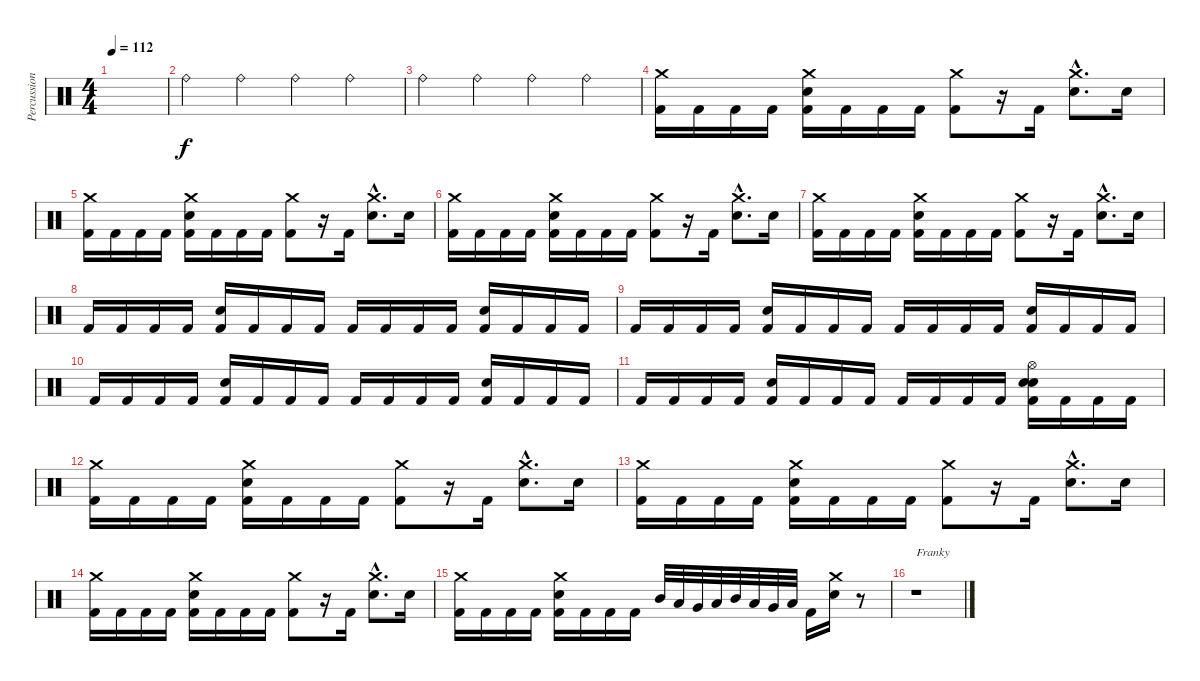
\track ("Percussions" "Percussion") {instrument percussion}
\staff {score}
\articulation defaults
\ts (4 4)
\tempo 112
\clef neutral
\ks c
|
"Ride (bell)".4 "Ride (bell)".4 "Ride (bell)".4 "Ride (bell)".4 |
"Ride (bell)".4 "Ride (bell)".4 "Ride (bell)".4 "Ride (bell)".4 |
("Crash medium (hit)" "Kick (hit) 2").16 "Kick (hit) 2".16 "Kick (hit) 2".16 "Kick (hit) 2".16 ("Crash medium (hit)" "Electric Snare (hit)" "Kick (hit) 2").16 "Kick (hit) 2".16 "Kick (hit) 2".16 "Kick (hit) 2".16 ("Crash medium (hit)" "Kick (hit) 2").8 r.16 "Kick (hit) 2".16 ("Crash medium (hit)"{hac} "Electric Snare (hit)"{hac}).8{d} "Electric Snare (hit)".16 |
("Crash medium (hit)" "Kick (hit) 2").16 "Kick (hit) 2".16 "Kick (hit) 2".16 "Kick (hit) 2".16 ("Crash medium (hit)" "Electric Snare (hit)" "Kick (hit) 2").16 "Kick (hit) 2".16 "Kick (hit) 2".16 "Kick (hit) 2".16 ("Crash medium (hit)" "Kick (hit) 2").8 r.16 "Kick (hit) 2".16 ("Crash medium (hit)"{hac} "Electric Snare (hit)"{hac}).8{d} "Electric Snare (hit)".16 |
("Crash medium (hit)" "Kick (hit) 2").16 "Kick (hit) 2".16 "Kick (hit) 2".16 "Kick (hit) 2".16 ("Crash medium (hit)" "Electric Snare (hit)" "Kick (hit) 2").16 "Kick (hit) 2".16 "Kick (hit) 2".16 "Kick (hit) 2".16 ("Crash medium (hit)" "Kick (hit) 2").8 r.16 "Kick (hit) 2".16 ("Crash medium (hit)"{hac} "Electric Snare (hit)"{hac}).8{d} "Electric Snare (hit)".16 |
("Crash medium (hit)" "Kick (hit) 2").16 "Kick (hit) 2".16 "Kick (hit) 2".16 "Kick (hit) 2".16 ("Crash medium (hit)" "Electric Snare (hit)" "Kick (hit) 2").16 "Kick (hit) 2".16 "Kick (hit) 2".16 "Kick (hit) 2".16 ("Crash medium (hit)" "Kick (hit) 2").8 r.16 "Kick (hit) 2".16 ("Crash medium (hit)"{hac} "Electric Snare (hit)"{hac}).8{d} "Electric Snare (hit)".16 |
"Kick (hit) 2".16 "Kick (hit) 2".16 "Kick (hit) 2".16 "Kick (hit) 2".16 ("Electric Snare (hit)" "Kick (hit) 2").16 "Kick (hit) 2".16 "Kick (hit) 2".16 "Kick (hit) 2".16 "Kick (hit) 2".16 "Kick (hit) 2".16 "Kick (hit) 2".16 "Kick (hit) 2".16 ("Electric Snare (hit)" "Kick (hit) 2").16 "Kick (hit) 2".16 "Kick (hit) 2".16 "Kick (hit) 2".16 |
"Kick (hit) 2".16 "Kick (hit) 2".16 "Kick (hit) 2".16 "Kick (hit) 2".16 ("Electric Snare (hit)" "Kick (hit) 2").16 "Kick (hit) 2".16 "Kick (hit) 2".16 "Kick (hit) 2".16 "Kick (hit) 2".16 "Kick (hit) 2".16 "Kick (hit) 2".16 "Kick (hit) 2".16 ("Electric Snare (hit)" "Kick (hit) 2").16 "Kick (hit) 2".16 "Kick (hit) 2".16 "Kick (hit) 2".16 |
"Kick (hit) 2".16 "Kick (hit) 2".16 "Kick (hit) 2".16 "Kick (hit) 2".16 ("Electric Snare (hit)" "Kick (hit) 2").16 "Kick (hit) 2".16 "Kick (hit) 2".16 "Kick (hit) 2".16 "Kick (hit) 2".16 "Kick (hit) 2".16 "Kick (hit) 2".16 "Kick (hit) 2".16 ("Electric Snare (hit)" "Kick (hit) 2").16 "Kick (hit) 2".16 "Kick (hit) 2".16 "Kick (hit) 2".16 |
"Kick (hit) 2".16 "Kick (hit) 2".16 "Kick (hit) 2".16 "Kick (hit) 2".16 ("Electric Snare (hit)" "Kick (hit) 2").16 "Kick (hit) 2".16 "Kick (hit) 2".16 "Kick (hit) 2".16 "Kick (hit) 2".16 "Kick (hit) 2".16 "Kick (hit) 2".16 "Kick (hit) 2".16 ("Hi-Hat (open)" "Electric Snare (hit)" "Electric Snare (hit)" "Kick (hit) 2").16 "Kick (hit) 2".16 "Kick (hit) 2".16 "Kick (hit) 2".16 |
("Crash medium (hit)" "Kick (hit) 2").16 "Kick (hit) 2".16 "Kick (hit) 2".16 "Kick (hit) 2".16 ("Crash medium (hit)" "Electric Snare (hit)" "Kick (hit) 2").16 "Kick (hit) 2".16 "Kick (hit) 2".16 "Kick (hit) 2".16 ("Crash medium (hit)" "Kick (hit) 2").8 r.16 "Kick (hit) 2".16 ("Crash medium (hit)"{hac} "Electric Snare (hit)"{hac}).8{d} "Electric Snare (hit)".16 |
("Crash medium (hit)" "Kick (hit) 2").16 "Kick (hit) 2".16 "Kick (hit) 2".16 "Kick (hit) 2".16 ("Crash medium (hit)" "Electric Snare (hit)" "Kick (hit) 2").16 "Kick (hit) 2".16 "Kick (hit) 2".16 "Kick (hit) 2".16 ("Crash medium (hit)" "Kick (hit) 2").8 r.16 "Kick (hit) 2".16 ("Crash medium (hit)"{hac} "Electric Snare (hit)"{hac}).8{d} "Electric Snare (hit)".16 |
("Crash medium (hit)" "Kick (hit) 2").16 "Kick (hit) 2".16 "Kick (hit) 2".16 "Kick (hit) 2".16 ("Crash medium (hit)" "Electric Snare (hit)" "Kick (hit) 2").16 "Kick (hit) 2".16 "Kick (hit) 2".16 "Kick (hit) 2".16 ("Crash medium (hit)" "Kick (hit) 2").8 r.16 "Kick (hit) 2".16 ("Crash medium (hit)"{hac} "Electric Snare (hit)"{hac}).8{d} "Electric Snare (hit)".16 |
("Crash medium (hit)" "Kick (hit) 2").16 "Kick (hit) 2".16 "Kick (hit) 2".16 "Kick (hit) 2".16 ("Crash medium (hit)" "Electric Snare (hit)" "Kick (hit) 2").16 "Kick (hit) 2".16 "Kick (hit) 2".16 "Kick (hit) 2".16 "Mid Tom (hit)".32 "Low Tom (hit)".32 "Very Low Tom (hit)".32 "Low Floor Tom (hit)".32 "Mid Tom (hit)".32 "Low Tom (hit)".32 "Very Low Tom (hit)".32 "Low Floor Tom (hit)".32 "Kick (hit) 2".16 ("Crash medium (hit)" "Electric Snare (hit)").16 r.8 |
r.1{txt "Franky"}
